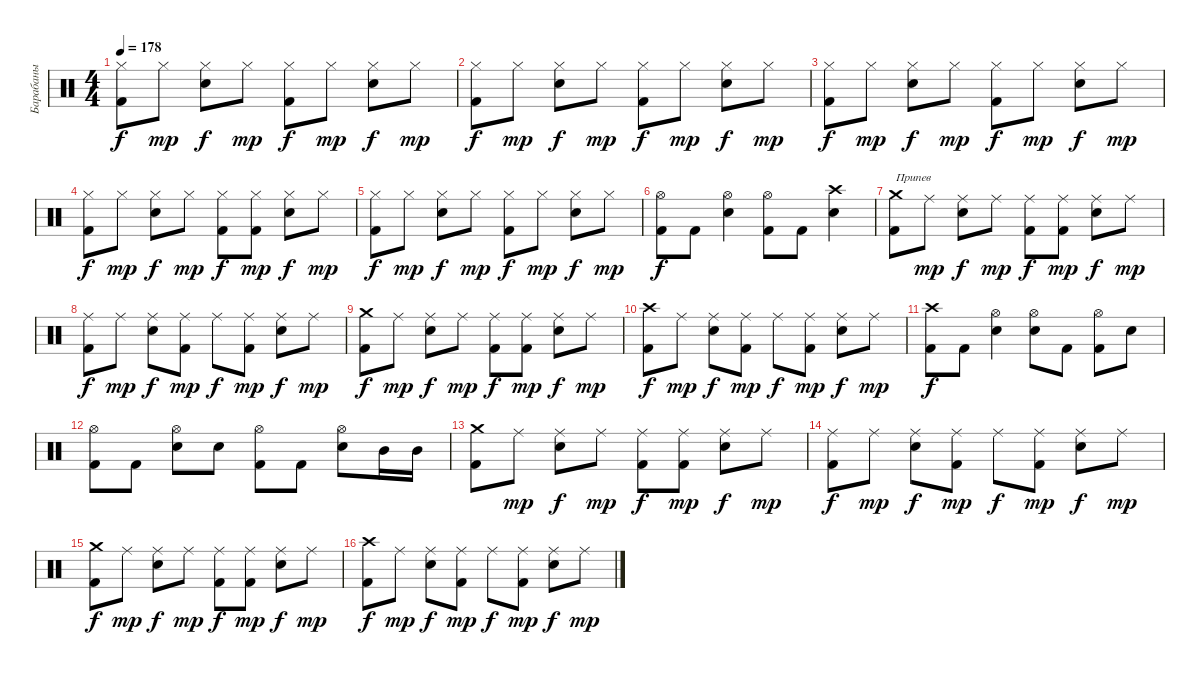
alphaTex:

\track ("Барабаны" "Барабаны") {instrument percussion}
\staff {score}
\articulation defaults
\ts (4 4)
\tempo 178
\clef neutral
\ks c
("Hi-Hat (closed)" "Kick (hit) 2").8{dy f} "Hi-Hat (closed)".8{dy mp} ("Hi-Hat (closed)" "Electric Snare (hit)").8{dy f} "Hi-Hat (closed)".8{dy mp} ("Hi-Hat (closed)" "Kick (hit) 2").8{dy f} "Hi-Hat (closed)".8{dy mp} ("Hi-Hat (closed)" "Electric Snare (hit)").8{dy f} "Hi-Hat (closed)".8{dy mp} |
("Hi-Hat (closed)" "Kick (hit) 2").8{dy f} "Hi-Hat (closed)".8{dy mp} ("Hi-Hat (closed)" "Electric Snare (hit)").8{dy f} "Hi-Hat (closed)".8{dy mp} ("Hi-Hat (closed)" "Kick (hit) 2").8{dy f} "Hi-Hat (closed)".8{dy mp} ("Hi-Hat (closed)" "Electric Snare (hit)").8{dy f} "Hi-Hat (closed)".8{dy mp} |
("Hi-Hat (closed)" "Kick (hit) 2").8{dy f} "Hi-Hat (closed)".8{dy mp} ("Hi-Hat (closed)" "Electric Snare (hit)").8{dy f} "Hi-Hat (closed)".8{dy mp} ("Hi-Hat (closed)" "Kick (hit) 2").8{dy f} "Hi-Hat (closed)".8{dy mp} ("Hi-Hat (closed)" "Electric Snare (hit)").8{dy f} "Hi-Hat (closed)".8{dy mp} |
("Hi-Hat (closed)" "Kick (hit) 2").8{dy f} "Hi-Hat (closed)".8{dy mp} ("Hi-Hat (closed)" "Electric Snare (hit)").8{dy f} "Hi-Hat (closed)".8{dy mp} ("Hi-Hat (closed)" "Kick (hit) 2").8{dy f} ("Hi-Hat (closed)" "Kick (hit) 2").8{dy mp} ("Hi-Hat (closed)" "Electric Snare (hit)").8{dy f} "Hi-Hat (closed)".8{dy mp} |
("Hi-Hat (closed)" "Kick (hit) 2").8{dy f} "Hi-Hat (closed)".8{dy mp} ("Hi-Hat (closed)" "Electric Snare (hit)").8{dy f} "Hi-Hat (closed)".8{dy mp} ("Hi-Hat (closed)" "Kick (hit) 2").8{dy f} "Hi-Hat (closed)".8{dy mp} ("Hi-Hat (closed)" "Electric Snare (hit)").8{dy f} "Hi-Hat (closed)".8{dy mp} |
("Hi-Hat (open)" "Kick (hit) 2").8{dy f} "Kick (hit) 2".8 ("Hi-Hat (open)" "Electric Snare (hit)").4 ("Hi-Hat (open)" "Kick (hit) 2").8 "Kick (hit) 2".8 ("Crash high (hit)" "Electric Snare (hit)").4 |
("Crash medium (hit)" "Kick (hit) 2").8{txt "Припев"} "Ride (middle)".8{dy mp} ("Ride (middle)" "Electric Snare (hit)").8{dy f} "Ride (middle)".8{dy mp} ("Ride (middle)" "Kick (hit) 2").8{dy f} ("Ride (middle)" "Kick (hit) 2").8{dy mp} ("Ride (middle)" "Electric Snare (hit)").8{dy f} "Ride (middle)".8{dy mp} |
("Ride (middle)" "Kick (hit) 2").8{dy f} "Ride (middle)".8{dy mp} ("Ride (middle)" "Electric Snare (hit)").8{dy f} ("Ride (middle)" "Kick (hit) 2").8{dy mp} "Ride (middle)".8{dy f} ("Ride (middle)" "Kick (hit) 2").8{dy mp} ("Ride (middle)" "Electric Snare (hit)").8{dy f} "Ride (middle)".8{dy mp} |
("Crash medium (hit)" "Kick (hit) 2").8{dy f} "Ride (middle)".8{dy mp} ("Ride (middle)" "Electric Snare (hit)").8{dy f} "Ride (middle)".8{dy mp} ("Ride (middle)" "Kick (hit) 2").8{dy f} ("Ride (middle)" "Kick (hit) 2").8{dy mp} ("Ride (middle)" "Electric Snare (hit)").8{dy f} "Ride (middle)".8{dy mp} |
("Crash high (hit)" "Kick (hit) 2").8{dy f} "Ride (middle)".8{dy mp} ("Ride (middle)" "Electric Snare (hit)").8{dy f} ("Ride (middle)" "Kick (hit) 2").8{dy mp} "Ride (middle)".8{dy f} ("Ride (middle)" "Kick (hit) 2").8{dy mp} ("Ride (middle)" "Electric Snare (hit)").8{dy f} "Ride (middle)".8{dy mp} |
("Crash high (hit)" "Kick (hit) 2").8{dy f} "Kick (hit) 2".8 ("Hi-Hat (open)" "Electric Snare (hit)").4 ("Hi-Hat (open)" "Electric Snare (hit)").8 "Kick (hit) 2".8 ("Hi-Hat (open)" "Kick (hit) 2").8 "Electric Snare (hit)".8 |
("Hi-Hat (open)" "Kick (hit) 2").8 "Kick (hit) 2".8 ("Hi-Hat (open)" "Electric Snare (hit)").8 "Electric Snare (hit)".8 ("Hi-Hat (open)" "Kick (hit) 2").8 "Kick (hit) 2".8 ("Hi-Hat (open)" "Electric Snare (hit)").8 "Mid Tom (hit)".16 "Mid Tom (hit)".16 |
("Crash medium (hit)" "Kick (hit) 2").8 "Ride (middle)".8{dy mp} ("Ride (middle)" "Electric Snare (hit)").8{dy f} "Ride (middle)".8{dy mp} ("Ride (middle)" "Kick (hit) 2").8{dy f} ("Ride (middle)" "Kick (hit) 2").8{dy mp} ("Ride (middle)" "Electric Snare (hit)").8{dy f} "Ride (middle)".8{dy mp} |
("Ride (middle)" "Kick (hit) 2").8{dy f} "Ride (middle)".8{dy mp} ("Ride (middle)" "Electric Snare (hit)").8{dy f} ("Ride (middle)" "Kick (hit) 2").8{dy mp} "Ride (middle)".8{dy f} ("Ride (middle)" "Kick (hit) 2").8{dy mp} ("Ride (middle)" "Electric Snare (hit)").8{dy f} "Ride (middle)".8{dy mp} |
("Crash medium (hit)" "Kick (hit) 2").8{dy f} "Ride (middle)".8{dy mp} ("Ride (middle)" "Electric Snare (hit)").8{dy f} "Ride (middle)".8{dy mp} ("Ride (middle)" "Kick (hit) 2").8{dy f} ("Ride (middle)" "Kick (hit) 2").8{dy mp} ("Ride (middle)" "Electric Snare (hit)").8{dy f} "Ride (middle)".8{dy mp} |
("Crash high (hit)" "Kick (hit) 2").8{dy f} "Ride (middle)".8{dy mp} ("Ride (middle)" "Electric Snare (hit)").8{dy f} ("Ride (middle)" "Kick (hit) 2").8{dy mp} "Ride (middle)".8{dy f} ("Ride (middle)" "Kick (hit) 2").8{dy mp} ("Ride (middle)" "Electric Snare (hit)").8{dy f} "Ride (middle)".8{dy mp}
